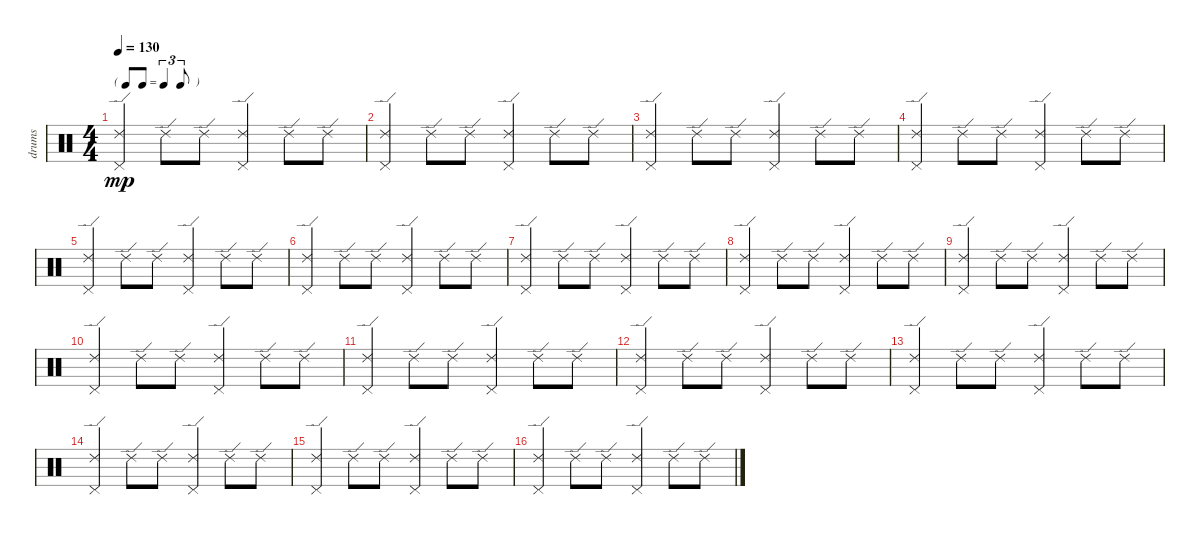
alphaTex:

\track ("drums" "drums") {instrument percussion}
\staff {score}
\articulation defaults
\ts (4 4)
\tf triplet8th
\tempo 130
\clef neutral
\ks c
("Pedal Hi-Hat (hit)" "Ride (edge) 2").4{dy mp} "Ride (edge) 2".8 "Ride (edge) 2".8 ("Pedal Hi-Hat (hit)" "Ride (edge) 2").4 "Ride (edge) 2".8 "Ride (edge) 2".8 |
("Pedal Hi-Hat (hit)" "Ride (edge) 2").4 "Ride (edge) 2".8 "Ride (edge) 2".8 ("Pedal Hi-Hat (hit)" "Ride (edge) 2").4 "Ride (edge) 2".8 "Ride (edge) 2".8 |
("Pedal Hi-Hat (hit)" "Ride (edge) 2").4 "Ride (edge) 2".8 "Ride (edge) 2".8 ("Pedal Hi-Hat (hit)" "Ride (edge) 2").4 "Ride (edge) 2".8 "Ride (edge) 2".8 |
("Pedal Hi-Hat (hit)" "Ride (edge) 2").4 "Ride (edge) 2".8 "Ride (edge) 2".8 ("Pedal Hi-Hat (hit)" "Ride (edge) 2").4 "Ride (edge) 2".8 "Ride (edge) 2".8 |
("Pedal Hi-Hat (hit)" "Ride (edge) 2").4 "Ride (edge) 2".8 "Ride (edge) 2".8 ("Pedal Hi-Hat (hit)" "Ride (edge) 2").4 "Ride (edge) 2".8 "Ride (edge) 2".8 |
("Pedal Hi-Hat (hit)" "Ride (edge) 2").4 "Ride (edge) 2".8 "Ride (edge) 2".8 ("Pedal Hi-Hat (hit)" "Ride (edge) 2").4 "Ride (edge) 2".8 "Ride (edge) 2".8 |
("Pedal Hi-Hat (hit)" "Ride (edge) 2").4 "Ride (edge) 2".8 "Ride (edge) 2".8 ("Pedal Hi-Hat (hit)" "Ride (edge) 2").4 "Ride (edge) 2".8 "Ride (edge) 2".8 |
("Pedal Hi-Hat (hit)" "Ride (edge) 2").4 "Ride (edge) 2".8 "Ride (edge) 2".8 ("Pedal Hi-Hat (hit)" "Ride (edge) 2").4 "Ride (edge) 2".8 "Ride (edge) 2".8 |
("Pedal Hi-Hat (hit)" "Ride (edge) 2").4 "Ride (edge) 2".8 "Ride (edge) 2".8 ("Pedal Hi-Hat (hit)" "Ride (edge) 2").4 "Ride (edge) 2".8 "Ride (edge) 2".8 |
("Pedal Hi-Hat (hit)" "Ride (edge) 2").4 "Ride (edge) 2".8 "Ride (edge) 2".8 ("Pedal Hi-Hat (hit)" "Ride (edge) 2").4 "Ride (edge) 2".8 "Ride (edge) 2".8 |
("Pedal Hi-Hat (hit)" "Ride (edge) 2").4 "Ride (edge) 2".8 "Ride (edge) 2".8 ("Pedal Hi-Hat (hit)" "Ride (edge) 2").4 "Ride (edge) 2".8 "Ride (edge) 2".8 |
("Pedal Hi-Hat (hit)" "Ride (edge) 2").4 "Ride (edge) 2".8 "Ride (edge) 2".8 ("Pedal Hi-Hat (hit)" "Ride (edge) 2").4 "Ride (edge) 2".8 "Ride (edge) 2".8 |
("Pedal Hi-Hat (hit)" "Ride (edge) 2").4 "Ride (edge) 2".8 "Ride (edge) 2".8 ("Pedal Hi-Hat (hit)" "Ride (edge) 2").4 "Ride (edge) 2".8 "Ride (edge) 2".8 |
("Pedal Hi-Hat (hit)" "Ride (edge) 2").4 "Ride (edge) 2".8 "Ride (edge) 2".8 ("Pedal Hi-Hat (hit)" "Ride (edge) 2").4 "Ride (edge) 2".8 "Ride (edge) 2".8 |
("Pedal Hi-Hat (hit)" "Ride (edge) 2").4 "Ride (edge) 2".8 "Ride (edge) 2".8 ("Pedal Hi-Hat (hit)" "Ride (edge) 2").4 "Ride (edge) 2".8 "Ride (edge) 2".8 |
("Pedal Hi-Hat (hit)" "Ride (edge) 2").4 "Ride (edge) 2".8 "Ride (edge) 2".8 ("Pedal Hi-Hat (hit)" "Ride (edge) 2").4 "Ride (edge) 2".8 "Ride (edge) 2".8
